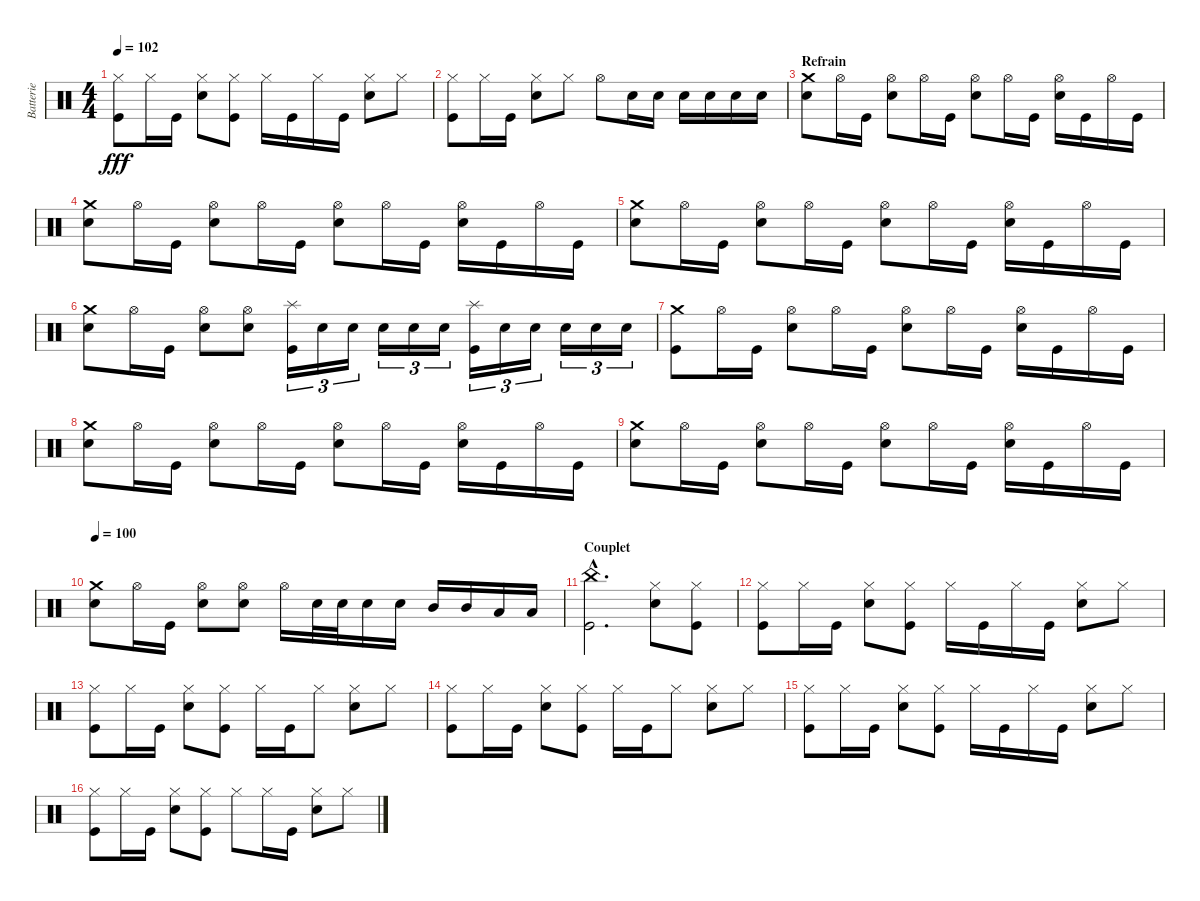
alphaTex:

\track ("Batterie" "Batterie") {instrument percussion}
\staff {score}
\articulation defaults
\ts (4 4)
\tempo 102
\clef neutral
\ks c
("Hi-Hat (closed)" "Kick (hit)").8{dy fff} "Hi-Hat (closed)".16 "Kick (hit)".16 ("Hi-Hat (closed)" "Metronome (bell)").8 ("Hi-Hat (closed)" "Kick (hit)").8 "Hi-Hat (closed)".16 "Kick (hit)".16 "Hi-Hat (closed)".16 "Kick (hit)".16 ("Hi-Hat (closed)" "Metronome (bell)").8 "Hi-Hat (closed)".8 |
("Hi-Hat (closed)" "Kick (hit)").8 "Hi-Hat (closed)".16 "Kick (hit)".16 ("Hi-Hat (closed)" "Metronome (bell)").8 "Hi-Hat (closed)".8 "Hi-Hat (open)".8 "Metronome (bell)".16 "Metronome (bell)".16 "Metronome (bell)".16 "Metronome (bell)".16 "Metronome (bell)".16 "Metronome (bell)".16 |
\section ("" "Refrain")
("Crash medium (hit)" "Metronome (bell)").8 "Hi-Hat (open)".16 "Kick (hit)".16 ("Hi-Hat (open)" "Metronome (bell)").8 "Hi-Hat (open)".16 "Kick (hit)".16 ("Hi-Hat (open)" "Metronome (bell)").8 "Hi-Hat (open)".16 "Kick (hit)".16 ("Hi-Hat (open)" "Metronome (bell)").16 "Kick (hit)".16 "Hi-Hat (open)".16 "Kick (hit)".16 |
("Crash medium (hit)" "Metronome (bell)").8 "Hi-Hat (open)".16 "Kick (hit)".16 ("Hi-Hat (open)" "Metronome (bell)").8 "Hi-Hat (open)".16 "Kick (hit)".16 ("Hi-Hat (open)" "Metronome (bell)").8 "Hi-Hat (open)".16 "Kick (hit)".16 ("Hi-Hat (open)" "Metronome (bell)").16 "Kick (hit)".16 "Hi-Hat (open)".16 "Kick (hit)".16 |
("Crash medium (hit)" "Metronome (bell)").8 "Hi-Hat (open)".16 "Kick (hit)".16 ("Hi-Hat (open)" "Metronome (bell)").8 "Hi-Hat (open)".16 "Kick (hit)".16 ("Hi-Hat (open)" "Metronome (bell)").8 "Hi-Hat (open)".16 "Kick (hit)".16 ("Hi-Hat (open)" "Metronome (bell)").16 "Kick (hit)".16 "Hi-Hat (open)".16 "Kick (hit)".16 |
("Crash medium (hit)" "Metronome (bell)").8 "Hi-Hat (open)".16 "Kick (hit)".16 ("Hi-Hat (open)" "Metronome (bell)").8 ("Hi-Hat (open)" "Metronome (bell)").8 ("Splash (hit)" "Kick (hit)").16{tu (3 2)} "Metronome (bell)".16{tu (3 2)} "Metronome (bell)".16{tu (3 2)} "Metronome (bell)".16{tu (3 2)} "Metronome (bell)".16{tu (3 2)} "Metronome (bell)".16{tu (3 2)} ("Splash (hit)" "Kick (hit)").16{tu (3 2)} "Metronome (bell)".16{tu (3 2)} "Metronome (bell)".16{tu (3 2)} "Metronome (bell)".16{tu (3 2)} "Metronome (bell)".16{tu (3 2)} "Metronome (bell)".16{tu (3 2)} |
("Crash medium (hit)" "Kick (hit)").8 "Hi-Hat (open)".16 "Kick (hit)".16 ("Hi-Hat (open)" "Metronome (bell)").8 "Hi-Hat (open)".16 "Kick (hit)".16 ("Hi-Hat (open)" "Metronome (bell)").8 "Hi-Hat (open)".16 "Kick (hit)".16 ("Hi-Hat (open)" "Metronome (bell)").16 "Kick (hit)".16 "Hi-Hat (open)".16 "Kick (hit)".16 |
("Crash medium (hit)" "Metronome (bell)").8 "Hi-Hat (open)".16 "Kick (hit)".16 ("Hi-Hat (open)" "Metronome (bell)").8 "Hi-Hat (open)".16 "Kick (hit)".16 ("Hi-Hat (open)" "Metronome (bell)").8 "Hi-Hat (open)".16 "Kick (hit)".16 ("Hi-Hat (open)" "Metronome (bell)").16 "Kick (hit)".16 "Hi-Hat (open)".16 "Kick (hit)".16 |
("Crash medium (hit)" "Metronome (bell)").8 "Hi-Hat (open)".16 "Kick (hit)".16 ("Hi-Hat (open)" "Metronome (bell)").8 "Hi-Hat (open)".16 "Kick (hit)".16 ("Hi-Hat (open)" "Metronome (bell)").8 "Hi-Hat (open)".16 "Kick (hit)".16 ("Hi-Hat (open)" "Metronome (bell)").16 "Kick (hit)".16 "Hi-Hat (open)".16 "Kick (hit)".16 |
\tempo 100
("Crash medium (hit)" "Metronome (bell)").8 "Hi-Hat (open)".16 "Kick (hit)".16 ("Hi-Hat (open)" "Metronome (bell)").8 ("Hi-Hat (open)" "Metronome (bell)").8 "Hi-Hat (open)".16 "Metronome (bell)".32 "Metronome (bell)".32 "Metronome (bell)".16 "Metronome (bell)".16 "Mid Tom (hit)".16 "Mid Tom (hit)".16 "Low Tom (hit)".16 "Low Tom (hit)".16 |
\section ("" "Couplet")
("China (hit)"{hac} "Kick (hit)"{hac}).2{d} ("Hi-Hat (closed)" "Metronome (bell)").8 ("Hi-Hat (closed)" "Kick (hit)").8 |
("Hi-Hat (closed)" "Kick (hit)").8 "Hi-Hat (closed)".16 "Kick (hit)".16 ("Hi-Hat (closed)" "Metronome (bell)").8 ("Hi-Hat (closed)" "Kick (hit)").8 "Hi-Hat (closed)".16 "Kick (hit)".16 "Hi-Hat (closed)".16 "Kick (hit)".16 ("Hi-Hat (closed)" "Metronome (bell)").8 "Hi-Hat (closed)".8 |
("Hi-Hat (closed)" "Kick (hit)").8 "Hi-Hat (closed)".16 "Kick (hit)".16 ("Hi-Hat (closed)" "Metronome (bell)").8 ("Hi-Hat (closed)" "Kick (hit)").8 "Hi-Hat (closed)".16 "Kick (hit)".16 "Hi-Hat (closed)".8 ("Hi-Hat (closed)" "Metronome (bell)").8 "Hi-Hat (closed)".8 |
("Hi-Hat (closed)" "Kick (hit)").8 "Hi-Hat (closed)".16 "Kick (hit)".16 ("Hi-Hat (closed)" "Metronome (bell)").8 ("Hi-Hat (closed)" "Kick (hit)").8 "Hi-Hat (closed)".16 "Kick (hit)".16 "Hi-Hat (closed)".8 ("Hi-Hat (closed)" "Metronome (bell)").8 "Hi-Hat (closed)".8 |
("Hi-Hat (closed)" "Kick (hit)").8 "Hi-Hat (closed)".16 "Kick (hit)".16 ("Hi-Hat (closed)" "Metronome (bell)").8 ("Hi-Hat (closed)" "Kick (hit)").8 "Hi-Hat (closed)".16 "Kick (hit)".16 "Hi-Hat (closed)".16 "Kick (hit)".16 ("Hi-Hat (closed)" "Metronome (bell)").8 "Hi-Hat (closed)".8 |
("Hi-Hat (closed)" "Kick (hit)").8 "Hi-Hat (closed)".16 "Kick (hit)".16 ("Hi-Hat (closed)" "Metronome (bell)").8 ("Hi-Hat (closed)" "Kick (hit)").8 "Hi-Hat (closed)".8 "Hi-Hat (closed)".16 "Kick (hit)".16 ("Hi-Hat (closed)" "Metronome (bell)").8 "Hi-Hat (closed)".8
